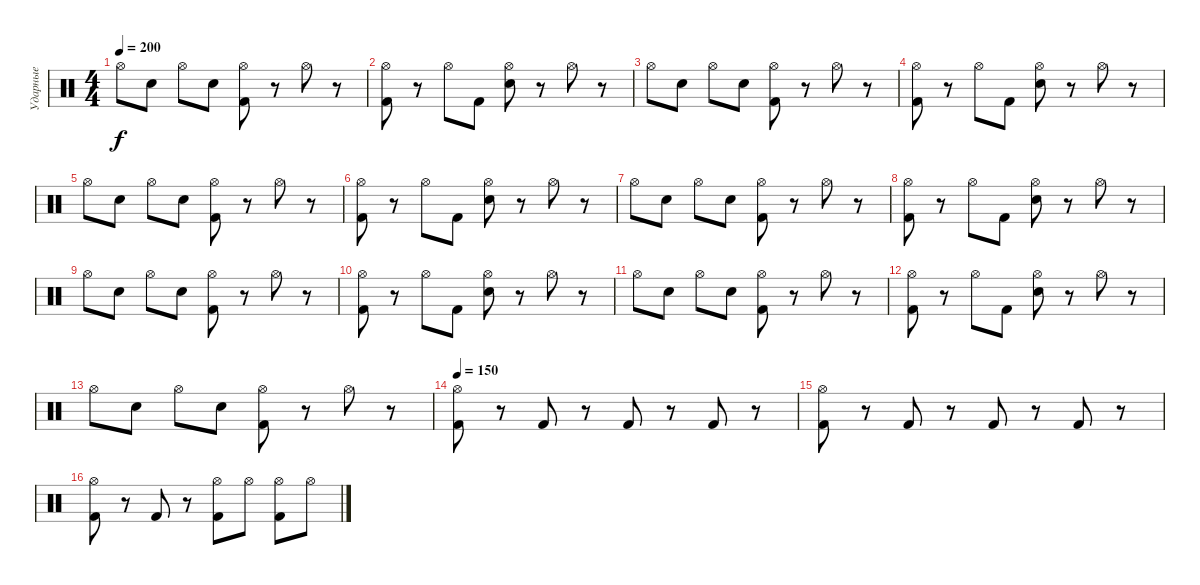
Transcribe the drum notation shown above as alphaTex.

\track ("Ударные" "Ударные") {instrument percussion}
\staff {score}
\articulation defaults
\ts (4 4)
\tempo 200
\clef neutral
\ks c "Hi-Hat (open)".8{dy f} "Electric Snare (hit)".8 "Hi-Hat (open)".8 "Electric Snare (hit)".8
("Hi-Hat (open)" "Kick (hit) 2").8 r.8 "Hi-Hat (open)".8 r.8 |
("Hi-Hat (open)" "Kick (hit) 2").8 r.8 "Hi-Hat (open)".8 "Kick (hit) 2".8 ("Hi-Hat (open)" "Electric Snare (hit)").8 r.8 "Hi-Hat (open)".8 r.8 |
"Hi-Hat (open)".8 "Electric Snare (hit)".8 "Hi-Hat (open)".8 "Electric Snare (hit)".8 ("Hi-Hat (open)" "Kick (hit) 2").8 r.8 "Hi-Hat (open)".8 r.8 |
("Hi-Hat (open)" "Kick (hit) 2").8 r.8 "Hi-Hat (open)".8 "Kick (hit) 2".8 ("Hi-Hat (open)" "Electric Snare (hit)").8 r.8 "Hi-Hat (open)".8 r.8 |
"Hi-Hat (open)".8 "Electric Snare (hit)".8 "Hi-Hat (open)".8 "Electric Snare (hit)".8 ("Hi-Hat (open)" "Kick (hit) 2").8 r.8 "Hi-Hat (open)".8 r.8 |
("Hi-Hat (open)" "Kick (hit) 2").8 r.8 "Hi-Hat (open)".8 "Kick (hit) 2".8 ("Hi-Hat (open)" "Electric Snare (hit)").8 r.8 "Hi-Hat (open)".8 r.8 |
"Hi-Hat (open)".8 "Electric Snare (hit)".8 "Hi-Hat (open)".8 "Electric Snare (hit)".8 ("Hi-Hat (open)" "Kick (hit) 2").8 r.8 "Hi-Hat (open)".8 r.8 |
("Hi-Hat (open)" "Kick (hit) 2").8 r.8 "Hi-Hat (open)".8 "Kick (hit) 2".8 ("Hi-Hat (open)" "Electric Snare (hit)").8 r.8 "Hi-Hat (open)".8 r.8 |
"Hi-Hat (open)".8 "Electric Snare (hit)".8 "Hi-Hat (open)".8 "Electric Snare (hit)".8 ("Hi-Hat (open)" "Kick (hit) 2").8 r.8 "Hi-Hat (open)".8 r.8 |
("Hi-Hat (open)" "Kick (hit) 2").8 r.8 "Hi-Hat (open)".8 "Kick (hit) 2".8 ("Hi-Hat (open)" "Electric Snare (hit)").8 r.8 "Hi-Hat (open)".8 r.8 |
"Hi-Hat (open)".8 "Electric Snare (hit)".8 "Hi-Hat (open)".8 "Electric Snare (hit)".8 ("Hi-Hat (open)" "Kick (hit) 2").8 r.8 "Hi-Hat (open)".8 r.8 |
("Hi-Hat (open)" "Kick (hit) 2").8 r.8 "Hi-Hat (open)".8 "Kick (hit) 2".8 ("Hi-Hat (open)" "Electric Snare (hit)").8 r.8 "Hi-Hat (open)".8 r.8 |
"Hi-Hat (open)".8 "Electric Snare (hit)".8 "Hi-Hat (open)".8 "Electric Snare (hit)".8 ("Hi-Hat (open)" "Kick (hit) 2").8 r.8 "Hi-Hat (open)".8 r.8 |
\tempo 150
("Hi-Hat (open)" "Kick (hit) 2").8 r.8 "Kick (hit) 2".8 r.8 "Kick (hit) 2".8 r.8 "Kick (hit) 2".8 r.8 |
("Hi-Hat (open)" "Kick (hit) 2").8 r.8 "Kick (hit) 2".8 r.8 "Kick (hit) 2".8 r.8 "Kick (hit) 2".8 r.8 |
("Hi-Hat (open)" "Kick (hit) 2").8 r.8 "Kick (hit) 2".8 r.8 ("Hi-Hat (open)" "Kick (hit) 2").8 "Hi-Hat (open)".8 ("Hi-Hat (open)" "Kick (hit) 2").8 "Hi-Hat (open)".8
